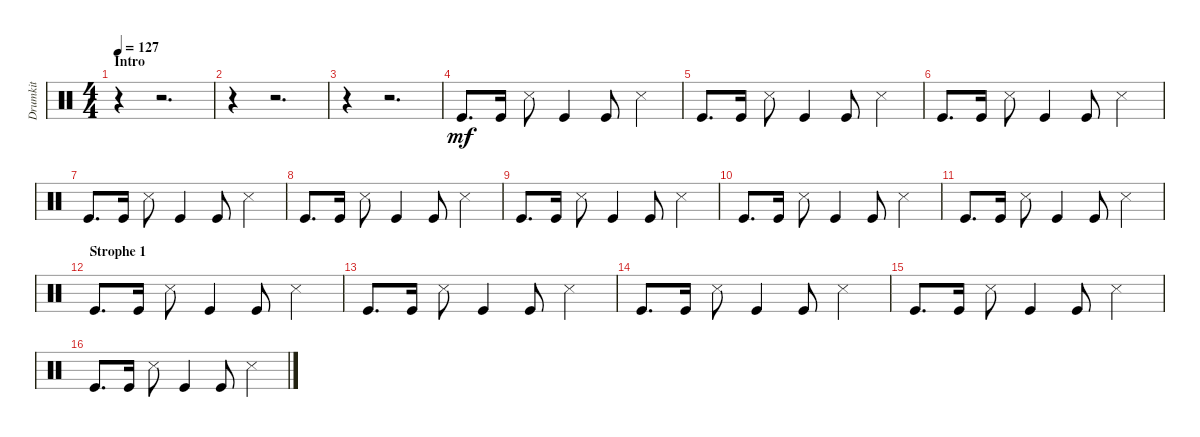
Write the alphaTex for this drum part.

\track ("Drumkit" "Drumkit") {instrument percussion}
\staff {score}
\articulation defaults
\ts (4 4)
\section ("" "Intro")
\tempo 127
\clef neutral
\ks c
r.4{dy mf} r.2{d} |
r.4 r.2{d} |
r.4 r.2{d} |
"Kick (hit)".8{d} "Kick (hit)".16 "Snare (side stick) 3".8 "Kick (hit)".4 "Kick (hit)".8 "Snare (side stick) 3".4 |
"Kick (hit)".8{d} "Kick (hit)".16 "Snare (side stick) 3".8 "Kick (hit)".4 "Kick (hit)".8 "Snare (side stick) 3".4 |
"Kick (hit)".8{d} "Kick (hit)".16 "Snare (side stick) 3".8 "Kick (hit)".4 "Kick (hit)".8 "Snare (side stick) 3".4 |
"Kick (hit)".8{d} "Kick (hit)".16 "Snare (side stick) 3".8 "Kick (hit)".4 "Kick (hit)".8 "Snare (side stick) 3".4 |
"Kick (hit)".8{d} "Kick (hit)".16 "Snare (side stick) 3".8 "Kick (hit)".4 "Kick (hit)".8 "Snare (side stick) 3".4 |
"Kick (hit)".8{d} "Kick (hit)".16 "Snare (side stick) 3".8 "Kick (hit)".4 "Kick (hit)".8 "Snare (side stick) 3".4 |
"Kick (hit)".8{d} "Kick (hit)".16 "Snare (side stick) 3".8 "Kick (hit)".4 "Kick (hit)".8 "Snare (side stick) 3".4 |
"Kick (hit)".8{d} "Kick (hit)".16 "Snare (side stick) 3".8 "Kick (hit)".4 "Kick (hit)".8 "Snare (side stick) 3".4 |
\section ("" "Strophe 1")
"Kick (hit)".8{d} "Kick (hit)".16 "Snare (side stick) 3".8 "Kick (hit)".4 "Kick (hit)".8 "Snare (side stick) 3".4 |
"Kick (hit)".8{d} "Kick (hit)".16 "Snare (side stick) 3".8 "Kick (hit)".4 "Kick (hit)".8 "Snare (side stick) 3".4 |
"Kick (hit)".8{d} "Kick (hit)".16 "Snare (side stick) 3".8 "Kick (hit)".4 "Kick (hit)".8 "Snare (side stick) 3".4 |
"Kick (hit)".8{d} "Kick (hit)".16 "Snare (side stick) 3".8 "Kick (hit)".4 "Kick (hit)".8 "Snare (side stick) 3".4 |
"Kick (hit)".8{d} "Kick (hit)".16 "Snare (side stick) 3".8 "Kick (hit)".4 "Kick (hit)".8 "Snare (side stick) 3".4
